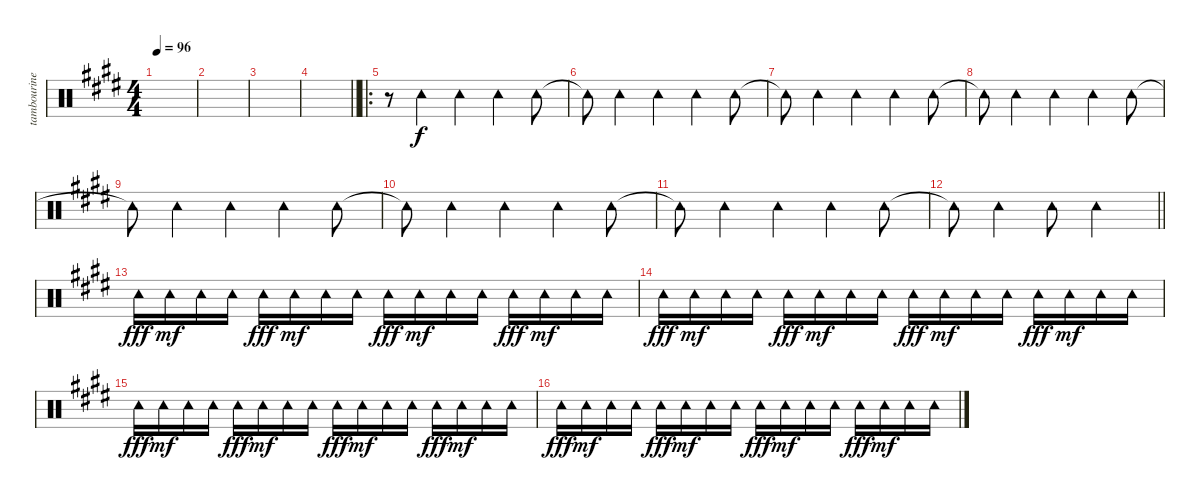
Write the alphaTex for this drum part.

\track ("tambourine" "tambourine") {instrument percussion}
\staff {score}
\articulation defaults
\ts (4 4)
\tempo 96
\clef neutral
\ks e
|
|
|
\barLineRight lightlight
|
\ro
r.8 "Tambourine (hit)".4 "Tambourine (hit)".4 "Tambourine (hit)".4 "Tambourine (hit)".8 |
"Tambourine (hit)"{t}.8 "Tambourine (hit)".4 "Tambourine (hit)".4 "Tambourine (hit)".4 "Tambourine (hit)".8 |
"Tambourine (hit)"{t}.8 "Tambourine (hit)".4 "Tambourine (hit)".4 "Tambourine (hit)".4 "Tambourine (hit)".8 |
"Tambourine (hit)"{t}.8 "Tambourine (hit)".4 "Tambourine (hit)".4 "Tambourine (hit)".4 "Tambourine (hit)".8 |
"Tambourine (hit)"{t}.8 "Tambourine (hit)".4 "Tambourine (hit)".4 "Tambourine (hit)".4 "Tambourine (hit)".8 |
"Tambourine (hit)"{t}.8 "Tambourine (hit)".4 "Tambourine (hit)".4 "Tambourine (hit)".4 "Tambourine (hit)".8 |
"Tambourine (hit)"{t}.8 "Tambourine (hit)".4 "Tambourine (hit)".4 "Tambourine (hit)".4 "Tambourine (hit)".8 |
\barLineRight lightlight "Tambourine (hit)"{t}.8 "Tambourine (hit)".4 "Tambourine (hit)".8 "Tambourine (hit)".2
|
"Tambourine (hit)".16{dy fff} "Tambourine (hit)".16{dy mf} "Tambourine (hit)".16 "Tambourine (hit)".16 "Tambourine (hit)".16{dy fff} "Tambourine (hit)".16{dy mf} "Tambourine (hit)".16 "Tambourine (hit)".16 "Tambourine (hit)".16{dy fff} "Tambourine (hit)".16{dy mf} "Tambourine (hit)".16 "Tambourine (hit)".16 "Tambourine (hit)".16{dy fff} "Tambourine (hit)".16{dy mf} "Tambourine (hit)".16 "Tambourine (hit)".16 |
"Tambourine (hit)".16{dy fff} "Tambourine (hit)".16{dy mf} "Tambourine (hit)".16 "Tambourine (hit)".16 "Tambourine (hit)".16{dy fff} "Tambourine (hit)".16{dy mf} "Tambourine (hit)".16 "Tambourine (hit)".16 "Tambourine (hit)".16{dy fff} "Tambourine (hit)".16{dy mf} "Tambourine (hit)".16 "Tambourine (hit)".16 "Tambourine (hit)".16{dy fff} "Tambourine (hit)".16{dy mf} "Tambourine (hit)".16 "Tambourine (hit)".16 |
"Tambourine (hit)".16{dy fff} "Tambourine (hit)".16{dy mf} "Tambourine (hit)".16 "Tambourine (hit)".16 "Tambourine (hit)".16{dy fff} "Tambourine (hit)".16{dy mf} "Tambourine (hit)".16 "Tambourine (hit)".16 "Tambourine (hit)".16{dy fff} "Tambourine (hit)".16{dy mf} "Tambourine (hit)".16 "Tambourine (hit)".16 "Tambourine (hit)".16{dy fff} "Tambourine (hit)".16{dy mf} "Tambourine (hit)".16 "Tambourine (hit)".16 |
"Tambourine (hit)".16{dy fff} "Tambourine (hit)".16{dy mf} "Tambourine (hit)".16 "Tambourine (hit)".16 "Tambourine (hit)".16{dy fff} "Tambourine (hit)".16{dy mf} "Tambourine (hit)".16 "Tambourine (hit)".16 "Tambourine (hit)".16{dy fff} "Tambourine (hit)".16{dy mf} "Tambourine (hit)".16 "Tambourine (hit)".16 "Tambourine (hit)".16{dy fff} "Tambourine (hit)".16{dy mf} "Tambourine (hit)".16 "Tambourine (hit)".16
